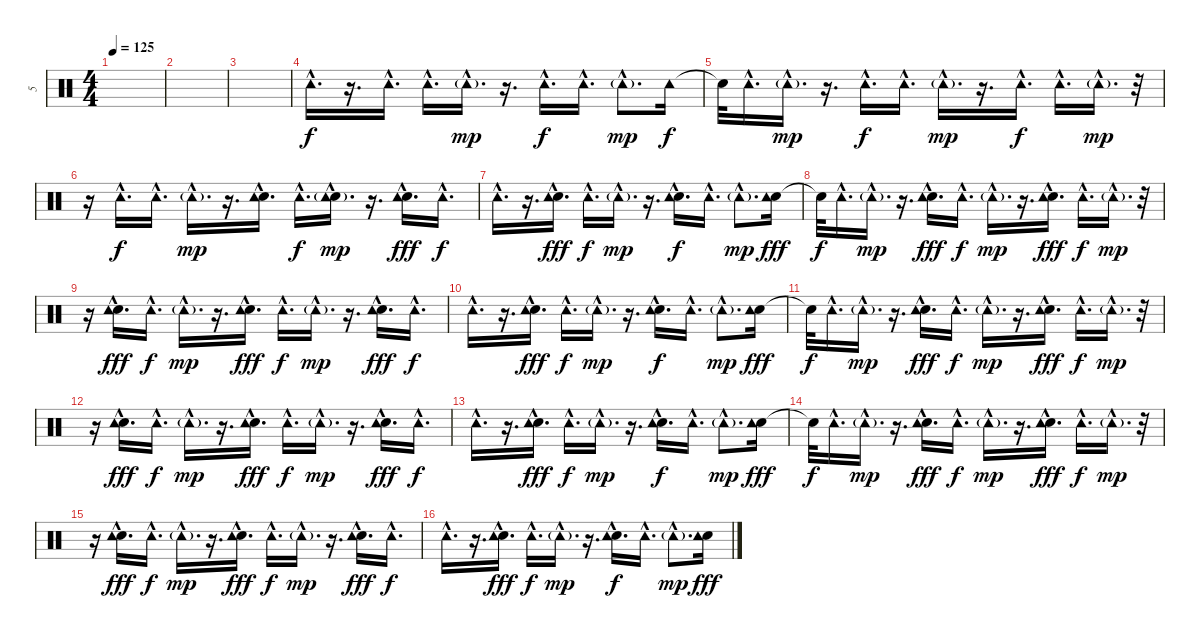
\track ("5" "5") {instrument percussion}
\staff {score}
\articulation defaults
\ts (4 4)
\tempo 125
\clef neutral
\ks c
|
|
|
"Tambourine (hit)"{hac}.16{d} r.16{d} "Tambourine (hit)"{hac}.16{d} "Tambourine (hit)"{hac}.16{d} "Tambourine (hit)"{g hac}.16{d dy mp} r.16{d} "Tambourine (hit)"{hac}.16{d dy f} "Tambourine (hit)"{hac}.16{d} "Tambourine (hit)"{g hac}.8{d dy mp} "Tambourine (hit)".16{dy f} |
"Snare (hit)"{t}.32 "Tambourine (hit)"{hac}.16{d} "Tambourine (hit)"{g hac}.16{d dy mp} r.16{d} "Tambourine (hit)"{hac}.16{d dy f} "Tambourine (hit)"{hac}.16{d} "Tambourine (hit)"{g hac}.16{d dy mp} r.16{d} "Tambourine (hit)"{hac}.16{d dy f} "Tambourine (hit)"{hac}.16{d} "Tambourine (hit)"{g hac}.16{d dy mp} r.32 |
r.16 "Tambourine (hit)"{hac}.16{d dy f} "Tambourine (hit)"{hac}.16{d} "Tambourine (hit)"{g hac}.16{d dy mp} r.16{d} ("Electric Snare (hit)"{hac} "Tambourine (hit)"{hac}).16{d} "Tambourine (hit)"{hac}.16{d dy f} ("Electric Snare (hit)"{hac} "Tambourine (hit)"{g hac}).16{d dy mp} r.16{d} ("Electric Snare (hit)"{hac} "Tambourine (hit)"{hac}).16{d dy fff} "Tambourine (hit)"{hac}.16{d dy f} |
"Tambourine (hit)"{hac}.16{d} r.16{d} ("Electric Snare (hit)"{hac} "Tambourine (hit)"{hac}).16{d dy fff} "Tambourine (hit)"{hac}.16{d dy f} "Tambourine (hit)"{g hac}.16{d dy mp} r.16{d} ("Electric Snare (hit)"{hac} "Tambourine (hit)"{hac}).16{d dy f} "Tambourine (hit)"{hac}.16{d} "Tambourine (hit)"{g hac}.8{d dy mp} ("Electric Snare (hit)" "Tambourine (hit)").16{dy fff} |
"Snare (hit)"{t}.32{dy f} "Tambourine (hit)"{hac}.16{d} "Tambourine (hit)"{g hac}.16{d dy mp} r.16{d} ("Electric Snare (hit)"{hac} "Tambourine (hit)"{hac}).16{d dy fff} "Tambourine (hit)"{hac}.16{d dy f} "Tambourine (hit)"{g hac}.16{d dy mp} r.16{d} ("Electric Snare (hit)"{hac} "Tambourine (hit)"{hac}).16{d dy fff} "Tambourine (hit)"{hac}.16{d dy f} "Tambourine (hit)"{g hac}.16{d dy mp} r.32 |
r.16 ("Electric Snare (hit)"{hac} "Tambourine (hit)"{hac}).16{d dy fff} "Tambourine (hit)"{hac}.16{d dy f} "Tambourine (hit)"{g hac}.16{d dy mp} r.16{d} ("Electric Snare (hit)"{hac} "Tambourine (hit)"{hac}).16{d dy fff} "Tambourine (hit)"{hac}.16{d dy f} "Tambourine (hit)"{g hac}.16{d dy mp} r.16{d} ("Electric Snare (hit)"{hac} "Tambourine (hit)"{hac}).16{d dy fff} "Tambourine (hit)"{hac}.16{d dy f} |
"Tambourine (hit)"{hac}.16{d} r.16{d} ("Electric Snare (hit)"{hac} "Tambourine (hit)"{hac}).16{d dy fff} "Tambourine (hit)"{hac}.16{d dy f} "Tambourine (hit)"{g hac}.16{d dy mp} r.16{d} ("Electric Snare (hit)"{hac} "Tambourine (hit)"{hac}).16{d dy f} "Tambourine (hit)"{hac}.16{d} "Tambourine (hit)"{g hac}.8{d dy mp} ("Electric Snare (hit)" "Tambourine (hit)").16{dy fff} |
"Snare (hit)"{t}.32{dy f} "Tambourine (hit)"{hac}.16{d} "Tambourine (hit)"{g hac}.16{d dy mp} r.16{d} ("Electric Snare (hit)"{hac} "Tambourine (hit)"{hac}).16{d dy fff} "Tambourine (hit)"{hac}.16{d dy f} "Tambourine (hit)"{g hac}.16{d dy mp} r.16{d} ("Electric Snare (hit)"{hac} "Tambourine (hit)"{hac}).16{d dy fff} "Tambourine (hit)"{hac}.16{d dy f} "Tambourine (hit)"{g hac}.16{d dy mp} r.32 |
r.16 ("Electric Snare (hit)"{hac} "Tambourine (hit)"{hac}).16{d dy fff} "Tambourine (hit)"{hac}.16{d dy f} "Tambourine (hit)"{g hac}.16{d dy mp} r.16{d} ("Electric Snare (hit)"{hac} "Tambourine (hit)"{hac}).16{d dy fff} "Tambourine (hit)"{hac}.16{d dy f} "Tambourine (hit)"{g hac}.16{d dy mp} r.16{d} ("Electric Snare (hit)"{hac} "Tambourine (hit)"{hac}).16{d dy fff} "Tambourine (hit)"{hac}.16{d dy f} |
"Tambourine (hit)"{hac}.16{d} r.16{d} ("Electric Snare (hit)"{hac} "Tambourine (hit)"{hac}).16{d dy fff} "Tambourine (hit)"{hac}.16{d dy f} "Tambourine (hit)"{g hac}.16{d dy mp} r.16{d} ("Electric Snare (hit)"{hac} "Tambourine (hit)"{hac}).16{d dy f} "Tambourine (hit)"{hac}.16{d} "Tambourine (hit)"{g hac}.8{d dy mp} ("Electric Snare (hit)" "Tambourine (hit)").16{dy fff} |
"Snare (hit)"{t}.32{dy f} "Tambourine (hit)"{hac}.16{d} "Tambourine (hit)"{g hac}.16{d dy mp} r.16{d} ("Electric Snare (hit)"{hac} "Tambourine (hit)"{hac}).16{d dy fff} "Tambourine (hit)"{hac}.16{d dy f} "Tambourine (hit)"{g hac}.16{d dy mp} r.16{d} ("Electric Snare (hit)"{hac} "Tambourine (hit)"{hac}).16{d dy fff} "Tambourine (hit)"{hac}.16{d dy f} "Tambourine (hit)"{g hac}.16{d dy mp} r.32 |
r.16 ("Electric Snare (hit)"{hac} "Tambourine (hit)"{hac}).16{d dy fff} "Tambourine (hit)"{hac}.16{d dy f} "Tambourine (hit)"{g hac}.16{d dy mp} r.16{d} ("Electric Snare (hit)"{hac} "Tambourine (hit)"{hac}).16{d dy fff} "Tambourine (hit)"{hac}.16{d dy f} "Tambourine (hit)"{g hac}.16{d dy mp} r.16{d} ("Electric Snare (hit)"{hac} "Tambourine (hit)"{hac}).16{d dy fff} "Tambourine (hit)"{hac}.16{d dy f} |
"Tambourine (hit)"{hac}.16{d} r.16{d} ("Electric Snare (hit)"{hac} "Tambourine (hit)"{hac}).16{d dy fff} "Tambourine (hit)"{hac}.16{d dy f} "Tambourine (hit)"{g hac}.16{d dy mp} r.16{d} ("Electric Snare (hit)"{hac} "Tambourine (hit)"{hac}).16{d dy f} "Tambourine (hit)"{hac}.16{d} "Tambourine (hit)"{g hac}.8{d dy mp} ("Electric Snare (hit)" "Tambourine (hit)").16{dy fff}
